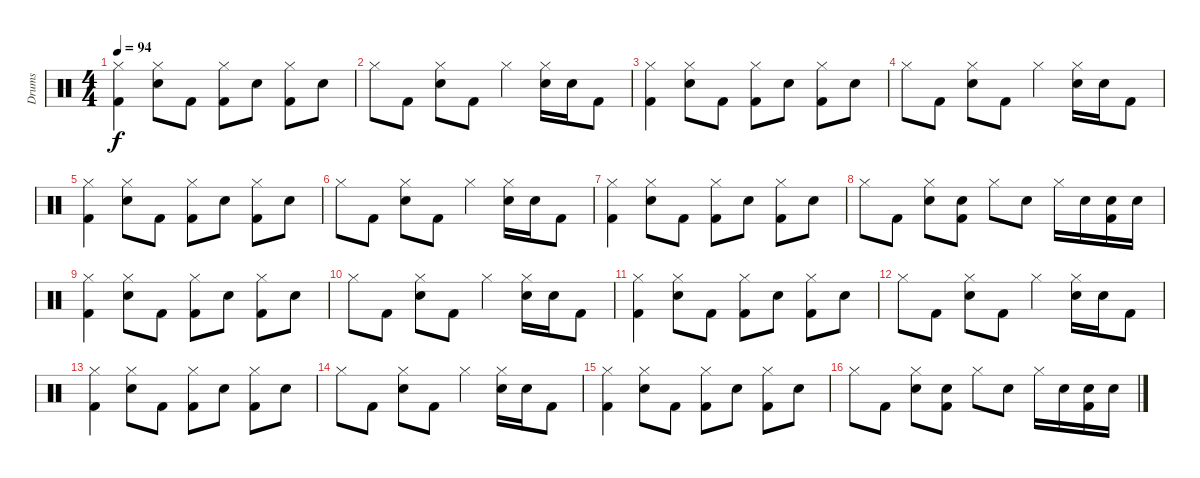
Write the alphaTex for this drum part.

\track ("Drums" "Drums") {instrument percussion}
\staff {score}
\articulation defaults
\ts (4 4)
\tempo 94
\clef neutral
\ks c
("Hi-Hat (closed)" "Kick (hit) 2").4{dy f} ("Hi-Hat (closed)" "Snare (hit) 2").8 "Kick (hit) 2".8 ("Hi-Hat (closed)" "Kick (hit) 2").8 "Snare (hit) 2".8 ("Hi-Hat (closed)" "Kick (hit) 2").8 "Snare (hit) 2".8 |
"Hi-Hat (closed)".8 "Kick (hit) 2".8 ("Hi-Hat (closed)" "Snare (hit) 2").8 "Kick (hit) 2".8 "Hi-Hat (closed)".4 ("Hi-Hat (closed)" "Snare (hit) 2").16 "Snare (hit) 2".16 "Kick (hit) 2".8 |
("Hi-Hat (closed)" "Kick (hit) 2").4 ("Hi-Hat (closed)" "Snare (hit) 2").8 "Kick (hit) 2".8 ("Hi-Hat (closed)" "Kick (hit) 2").8 "Snare (hit) 2".8 ("Hi-Hat (closed)" "Kick (hit) 2").8 "Snare (hit) 2".8 |
"Hi-Hat (closed)".8 "Kick (hit) 2".8 ("Hi-Hat (closed)" "Snare (hit) 2").8 "Kick (hit) 2".8 "Hi-Hat (closed)".4 ("Hi-Hat (closed)" "Snare (hit) 2").16 "Snare (hit) 2".16 "Kick (hit) 2".8 |
("Hi-Hat (closed)" "Kick (hit) 2").4 ("Hi-Hat (closed)" "Snare (hit) 2").8 "Kick (hit) 2".8 ("Hi-Hat (closed)" "Kick (hit) 2").8 "Snare (hit) 2".8 ("Hi-Hat (closed)" "Kick (hit) 2").8 "Snare (hit) 2".8 |
"Hi-Hat (closed)".8 "Kick (hit) 2".8 ("Hi-Hat (closed)" "Snare (hit) 2").8 "Kick (hit) 2".8 "Hi-Hat (closed)".4 ("Hi-Hat (closed)" "Snare (hit) 2").16 "Snare (hit) 2".16 "Kick (hit) 2".8 |
("Hi-Hat (closed)" "Kick (hit) 2").4 ("Hi-Hat (closed)" "Snare (hit) 2").8 "Kick (hit) 2".8 ("Hi-Hat (closed)" "Kick (hit) 2").8 "Snare (hit) 2".8 ("Hi-Hat (closed)" "Kick (hit) 2").8 "Snare (hit) 2".8 |
"Hi-Hat (closed)".8 "Kick (hit) 2".8 ("Hi-Hat (closed)" "Snare (hit) 2").8 ("Snare (hit) 2" "Kick (hit) 2").8 "Hi-Hat (closed)".8 "Snare (hit) 2".8 "Hi-Hat (closed)".16 "Snare (hit) 2".16 ("Snare (hit) 2" "Kick (hit) 2").16 "Snare (hit) 2".16 |
("Hi-Hat (closed)" "Kick (hit) 2").4 ("Hi-Hat (closed)" "Snare (hit) 2").8 "Kick (hit) 2".8 ("Hi-Hat (closed)" "Kick (hit) 2").8 "Snare (hit) 2".8 ("Hi-Hat (closed)" "Kick (hit) 2").8 "Snare (hit) 2".8 |
"Hi-Hat (closed)".8 "Kick (hit) 2".8 ("Hi-Hat (closed)" "Snare (hit) 2").8 "Kick (hit) 2".8 "Hi-Hat (closed)".4 ("Hi-Hat (closed)" "Snare (hit) 2").16 "Snare (hit) 2".16 "Kick (hit) 2".8 |
("Hi-Hat (closed)" "Kick (hit) 2").4 ("Hi-Hat (closed)" "Snare (hit) 2").8 "Kick (hit) 2".8 ("Hi-Hat (closed)" "Kick (hit) 2").8 "Snare (hit) 2".8 ("Hi-Hat (closed)" "Kick (hit) 2").8 "Snare (hit) 2".8 |
"Hi-Hat (closed)".8 "Kick (hit) 2".8 ("Hi-Hat (closed)" "Snare (hit) 2").8 "Kick (hit) 2".8 "Hi-Hat (closed)".4 ("Hi-Hat (closed)" "Snare (hit) 2").16 "Snare (hit) 2".16 "Kick (hit) 2".8 |
("Hi-Hat (closed)" "Kick (hit) 2").4 ("Hi-Hat (closed)" "Snare (hit) 2").8 "Kick (hit) 2".8 ("Hi-Hat (closed)" "Kick (hit) 2").8 "Snare (hit) 2".8 ("Hi-Hat (closed)" "Kick (hit) 2").8 "Snare (hit) 2".8 |
"Hi-Hat (closed)".8 "Kick (hit) 2".8 ("Hi-Hat (closed)" "Snare (hit) 2").8 "Kick (hit) 2".8 "Hi-Hat (closed)".4 ("Hi-Hat (closed)" "Snare (hit) 2").16 "Snare (hit) 2".16 "Kick (hit) 2".8 |
("Hi-Hat (closed)" "Kick (hit) 2").4 ("Hi-Hat (closed)" "Snare (hit) 2").8 "Kick (hit) 2".8 ("Hi-Hat (closed)" "Kick (hit) 2").8 "Snare (hit) 2".8 ("Hi-Hat (closed)" "Kick (hit) 2").8 "Snare (hit) 2".8 |
"Hi-Hat (closed)".8 "Kick (hit) 2".8 ("Hi-Hat (closed)" "Snare (hit) 2").8 ("Snare (hit) 2" "Kick (hit) 2").8 "Hi-Hat (closed)".8 "Snare (hit) 2".8 "Hi-Hat (closed)".16 "Snare (hit) 2".16 ("Snare (hit) 2" "Kick (hit) 2").16 "Snare (hit) 2".16
